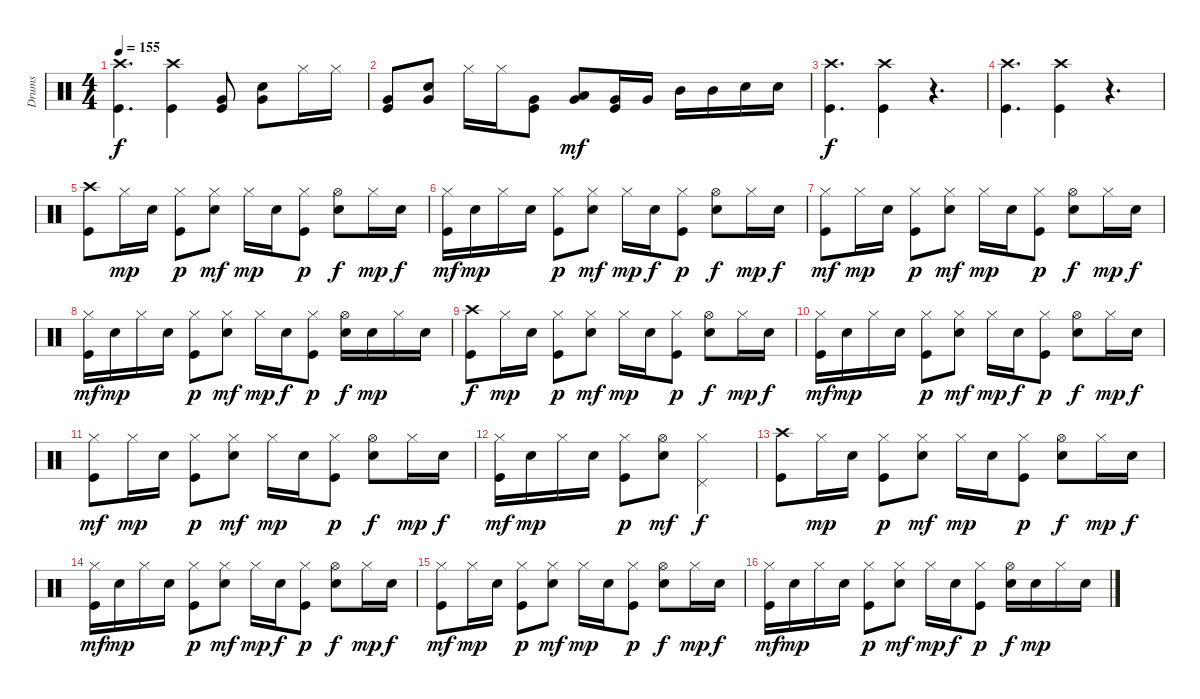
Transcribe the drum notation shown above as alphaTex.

\track ("Drums" "Drums") {instrument percussion}
\staff {score}
\articulation defaults
\ts (4 4)
\tempo 155
\clef neutral
\ks c
("Crash high (hit)" "Kick (hit)").4{d dy f} ("Crash high (hit)" "Kick (hit)").4 ("Kick (hit)" "Very Low Tom (hit)").8 ("Snare (hit) 2" "Very Low Tom (hit)").8 "Hi-Hat (closed)".16 "Hi-Hat (closed)".16 |
("Very Low Tom (hit)" "Kick (hit)").8 ("Snare (hit) 2" "Very Low Tom (hit)").8 "Hi-Hat (closed)".16 "Hi-Hat (closed)".16 ("Very Low Tom (hit)" "Kick (hit)").8 ("Low Tom (hit)" "Very Low Tom (hit)").8{dy mf} ("Kick (hit)" "Very Low Tom (hit)").16 "Very Low Tom (hit)".16 "Mid Tom (hit)".16 "Mid Tom (hit)".16 "Snare (hit) 2".16 "Snare (hit) 2".16 |
("Crash high (hit)" "Kick (hit)").4{d dy f} ("Crash high (hit)" "Kick (hit)").4 r.4{d} |
("Crash high (hit)" "Kick (hit)").4{d} ("Crash high (hit)" "Kick (hit)").4 r.4{d} |
("Crash high (hit)" "Kick (hit)").8 "Hi-Hat (closed)".16{dy mp} "Snare (hit) 2".16 ("Kick (hit)" "Hi-Hat (closed)").8{dy p} ("Snare (hit) 2" "Hi-Hat (closed)").8{dy mf} "Hi-Hat (closed)".16{dy mp} "Snare (hit) 2".16 ("Hi-Hat (closed)" "Kick (hit)").8{dy p} ("Snare (hit) 2" "Hi-Hat (open)").8{dy f} "Hi-Hat (closed)".16{dy mp} "Snare (hit) 2".16{dy f} |
("Hi-Hat (closed)" "Kick (hit)").16{dy mf} "Snare (hit) 2".16{dy mp} "Hi-Hat (closed)".16 "Snare (hit) 2".16 ("Kick (hit)" "Hi-Hat (closed)").8{dy p} ("Snare (hit) 2" "Hi-Hat (closed)").8{dy mf} "Hi-Hat (closed)".16{dy mp} "Snare (hit) 2".16{dy f} ("Hi-Hat (closed)" "Kick (hit)").8{dy p} ("Snare (hit) 2" "Hi-Hat (open)").8{dy f} "Hi-Hat (closed)".16{dy mp} "Snare (hit) 2".16{dy f} |
("Hi-Hat (closed)" "Kick (hit)").8{dy mf} "Hi-Hat (closed)".16{dy mp} "Snare (hit) 2".16 ("Kick (hit)" "Hi-Hat (closed)").8{dy p} ("Snare (hit) 2" "Hi-Hat (closed)").8{dy mf} "Hi-Hat (closed)".16{dy mp} "Snare (hit) 2".16 ("Hi-Hat (closed)" "Kick (hit)").8{dy p} ("Snare (hit) 2" "Hi-Hat (open)").8{dy f} "Hi-Hat (closed)".16{dy mp} "Snare (hit) 2".16{dy f} |
("Hi-Hat (closed)" "Kick (hit)").16{dy mf} "Snare (hit) 2".16{dy mp} "Hi-Hat (closed)".16 "Snare (hit) 2".16 ("Kick (hit)" "Hi-Hat (closed)").8{dy p} ("Snare (hit) 2" "Hi-Hat (closed)").8{dy mf} "Hi-Hat (closed)".16{dy mp} "Snare (hit) 2".16{dy f} ("Hi-Hat (closed)" "Kick (hit)").8{dy p} ("Snare (hit) 2" "Hi-Hat (open)").16{dy f} "Snare (hit) 2".16{dy mp} "Hi-Hat (closed)".16 "Snare (hit) 2".16 |
("Crash high (hit)" "Kick (hit)").8{dy f} "Hi-Hat (closed)".16{dy mp} "Snare (hit) 2".16 ("Kick (hit)" "Hi-Hat (closed)").8{dy p} ("Snare (hit) 2" "Hi-Hat (closed)").8{dy mf} "Hi-Hat (closed)".16{dy mp} "Snare (hit) 2".16 ("Hi-Hat (closed)" "Kick (hit)").8{dy p} ("Snare (hit) 2" "Hi-Hat (open)").8{dy f} "Hi-Hat (closed)".16{dy mp} "Snare (hit) 2".16{dy f} |
("Hi-Hat (closed)" "Kick (hit)").16{dy mf} "Snare (hit) 2".16{dy mp} "Hi-Hat (closed)".16 "Snare (hit) 2".16 ("Kick (hit)" "Hi-Hat (closed)").8{dy p} ("Snare (hit) 2" "Hi-Hat (closed)").8{dy mf} "Hi-Hat (closed)".16{dy mp} "Snare (hit) 2".16{dy f} ("Hi-Hat (closed)" "Kick (hit)").8{dy p} ("Snare (hit) 2" "Hi-Hat (open)").8{dy f} "Hi-Hat (closed)".16{dy mp} "Snare (hit) 2".16{dy f} |
("Hi-Hat (closed)" "Kick (hit)").8{dy mf} "Hi-Hat (closed)".16{dy mp} "Snare (hit) 2".16 ("Kick (hit)" "Hi-Hat (closed)").8{dy p} ("Snare (hit) 2" "Hi-Hat (closed)").8{dy mf} "Hi-Hat (closed)".16{dy mp} "Snare (hit) 2".16 ("Hi-Hat (closed)" "Kick (hit)").8{dy p} ("Snare (hit) 2" "Hi-Hat (open)").8{dy f} "Hi-Hat (closed)".16{dy mp} "Snare (hit) 2".16{dy f} |
("Hi-Hat (closed)" "Kick (hit)").16{dy mf} "Snare (hit) 2".16{dy mp} "Hi-Hat (closed)".16 "Snare (hit) 2".16 ("Kick (hit)" "Hi-Hat (closed)").8{dy p} ("Snare (hit) 2" "Hi-Hat (open)").8{dy mf} ("Hi-Hat (closed)" "Pedal Hi-Hat (hit)").2{dy f} |
("Crash high (hit)" "Kick (hit)").8 "Hi-Hat (closed)".16{dy mp} "Snare (hit) 2".16 ("Kick (hit)" "Hi-Hat (closed)").8{dy p} ("Snare (hit) 2" "Hi-Hat (closed)").8{dy mf} "Hi-Hat (closed)".16{dy mp} "Snare (hit) 2".16 ("Hi-Hat (closed)" "Kick (hit)").8{dy p} ("Snare (hit) 2" "Hi-Hat (open)").8{dy f} "Hi-Hat (closed)".16{dy mp} "Snare (hit) 2".16{dy f} |
("Hi-Hat (closed)" "Kick (hit)").16{dy mf} "Snare (hit) 2".16{dy mp} "Hi-Hat (closed)".16 "Snare (hit) 2".16 ("Kick (hit)" "Hi-Hat (closed)").8{dy p} ("Snare (hit) 2" "Hi-Hat (closed)").8{dy mf} "Hi-Hat (closed)".16{dy mp} "Snare (hit) 2".16{dy f} ("Hi-Hat (closed)" "Kick (hit)").8{dy p} ("Snare (hit) 2" "Hi-Hat (open)").8{dy f} "Hi-Hat (closed)".16{dy mp} "Snare (hit) 2".16{dy f} |
("Hi-Hat (closed)" "Kick (hit)").8{dy mf} "Hi-Hat (closed)".16{dy mp} "Snare (hit) 2".16 ("Kick (hit)" "Hi-Hat (closed)").8{dy p} ("Snare (hit) 2" "Hi-Hat (closed)").8{dy mf} "Hi-Hat (closed)".16{dy mp} "Snare (hit) 2".16 ("Hi-Hat (closed)" "Kick (hit)").8{dy p} ("Snare (hit) 2" "Hi-Hat (open)").8{dy f} "Hi-Hat (closed)".16{dy mp} "Snare (hit) 2".16{dy f} |
("Hi-Hat (closed)" "Kick (hit)").16{dy mf} "Snare (hit) 2".16{dy mp} "Hi-Hat (closed)".16 "Snare (hit) 2".16 ("Kick (hit)" "Hi-Hat (closed)").8{dy p} ("Snare (hit) 2" "Hi-Hat (closed)").8{dy mf} "Hi-Hat (closed)".16{dy mp} "Snare (hit) 2".16{dy f} ("Hi-Hat (closed)" "Kick (hit)").8{dy p} ("Snare (hit) 2" "Hi-Hat (open)").16{dy f} "Snare (hit) 2".16{dy mp} "Hi-Hat (closed)".16 "Snare (hit) 2".16
